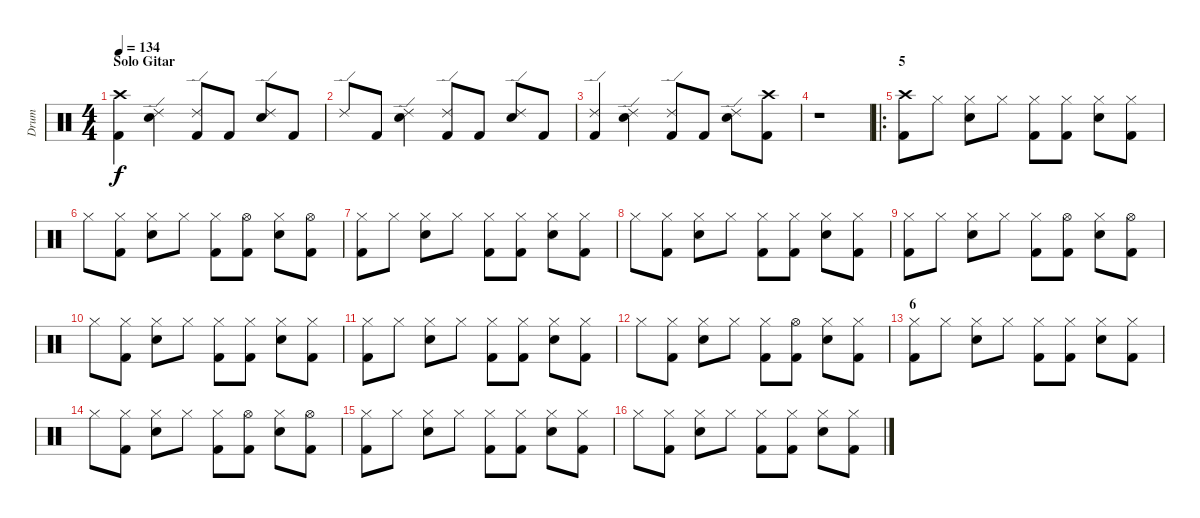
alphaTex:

\track ("Drum" "Drum") {instrument percussion}
\staff {score}
\articulation defaults
\ts (4 4)
\section ("" "Solo Gitar")
\tempo 134
\clef neutral
\ks c
("Kick (hit) 2" "Crash high (hit)").4{dy f} ("Electric Snare (hit)" "Ride (edge) 2").4 ("Ride (edge) 2" "Kick (hit) 2").8 "Kick (hit) 2".8 ("Electric Snare (hit)" "Ride (edge) 2").8 "Kick (hit) 2".8 |
"Ride (edge) 2".8 "Kick (hit) 2".8 ("Electric Snare (hit)" "Ride (edge) 2").4 ("Kick (hit) 2" "Ride (edge) 2").8 "Kick (hit) 2".8 ("Ride (edge) 2" "Electric Snare (hit)").8 "Kick (hit) 2".8 |
("Kick (hit) 2" "Ride (edge) 2").4 ("Electric Snare (hit)" "Ride (edge) 2").4 ("Ride (edge) 2" "Kick (hit) 2").8 "Kick (hit) 2".8 ("Electric Snare (hit)" "Ride (edge) 2").8 ("Crash high (hit)" "Kick (hit) 2").8 |
r.1 |
\ro
\section ("" "5")
("Kick (hit) 2" "Crash high (hit)").8 "Hi-Hat (closed)".8 ("Hi-Hat (closed)" "Electric Snare (hit)").8 "Hi-Hat (closed)".8 ("Hi-Hat (closed)" "Kick (hit) 2").8 ("Hi-Hat (closed)" "Kick (hit) 2").8 ("Electric Snare (hit)" "Hi-Hat (closed)").8 ("Hi-Hat (closed)" "Kick (hit) 2").8 |
"Hi-Hat (closed)".8 ("Hi-Hat (closed)" "Kick (hit) 2").8 ("Electric Snare (hit)" "Hi-Hat (closed)").8 "Hi-Hat (closed)".8 ("Kick (hit) 2" "Hi-Hat (closed)").8 ("Hi-Hat (open)" "Kick (hit) 2").8 ("Hi-Hat (closed)" "Electric Snare (hit)").8 ("Kick (hit) 2" "Hi-Hat (open)").8 |
("Kick (hit) 2" "Hi-Hat (closed)").8 "Hi-Hat (closed)".8 ("Hi-Hat (closed)" "Electric Snare (hit)").8 "Hi-Hat (closed)".8 ("Hi-Hat (closed)" "Kick (hit) 2").8 ("Hi-Hat (closed)" "Kick (hit) 2").8 ("Electric Snare (hit)" "Hi-Hat (closed)").8 ("Hi-Hat (closed)" "Kick (hit) 2").8 |
"Hi-Hat (closed)".8 ("Hi-Hat (closed)" "Kick (hit) 2").8 ("Electric Snare (hit)" "Hi-Hat (closed)").8 "Hi-Hat (closed)".8 ("Kick (hit) 2" "Hi-Hat (closed)").8 ("Hi-Hat (closed)" "Kick (hit) 2").8 ("Hi-Hat (closed)" "Electric Snare (hit)").8 ("Kick (hit) 2" "Hi-Hat (closed)").8 |
("Kick (hit) 2" "Hi-Hat (closed)").8 "Hi-Hat (closed)".8 ("Hi-Hat (closed)" "Electric Snare (hit)").8 "Hi-Hat (closed)".8 ("Hi-Hat (closed)" "Kick (hit) 2").8 ("Hi-Hat (open)" "Kick (hit) 2").8 ("Electric Snare (hit)" "Hi-Hat (closed)").8 ("Hi-Hat (open)" "Kick (hit) 2").8 |
"Hi-Hat (closed)".8 ("Hi-Hat (closed)" "Kick (hit) 2").8 ("Electric Snare (hit)" "Hi-Hat (closed)").8 "Hi-Hat (closed)".8 ("Kick (hit) 2" "Hi-Hat (closed)").8 ("Hi-Hat (closed)" "Kick (hit) 2").8 ("Hi-Hat (closed)" "Electric Snare (hit)").8 ("Kick (hit) 2" "Hi-Hat (closed)").8 |
("Kick (hit) 2" "Hi-Hat (closed)").8 "Hi-Hat (closed)".8 ("Hi-Hat (closed)" "Electric Snare (hit)").8 "Hi-Hat (closed)".8 ("Hi-Hat (closed)" "Kick (hit) 2").8 ("Hi-Hat (closed)" "Kick (hit) 2").8 ("Electric Snare (hit)" "Hi-Hat (closed)").8 ("Hi-Hat (closed)" "Kick (hit) 2").8 |
"Hi-Hat (closed)".8 ("Hi-Hat (closed)" "Kick (hit) 2").8 ("Electric Snare (hit)" "Hi-Hat (closed)").8 "Hi-Hat (closed)".8 ("Kick (hit) 2" "Hi-Hat (closed)").8 ("Hi-Hat (open)" "Kick (hit) 2").8 ("Hi-Hat (closed)" "Electric Snare (hit)").8 ("Kick (hit) 2" "Hi-Hat (closed)").8 |
\section ("" "6")
("Kick (hit) 2" "Hi-Hat (closed)").8 "Hi-Hat (closed)".8 ("Hi-Hat (closed)" "Electric Snare (hit)").8 "Hi-Hat (closed)".8 ("Hi-Hat (closed)" "Kick (hit) 2").8 ("Hi-Hat (closed)" "Kick (hit) 2").8 ("Electric Snare (hit)" "Hi-Hat (closed)").8 ("Hi-Hat (closed)" "Kick (hit) 2").8 |
"Hi-Hat (closed)".8 ("Hi-Hat (closed)" "Kick (hit) 2").8 ("Electric Snare (hit)" "Hi-Hat (closed)").8 "Hi-Hat (closed)".8 ("Kick (hit) 2" "Hi-Hat (closed)").8 ("Hi-Hat (open)" "Kick (hit) 2").8 ("Hi-Hat (closed)" "Electric Snare (hit)").8 ("Kick (hit) 2" "Hi-Hat (open)").8 |
("Kick (hit) 2" "Hi-Hat (closed)").8 "Hi-Hat (closed)".8 ("Hi-Hat (closed)" "Electric Snare (hit)").8 "Hi-Hat (closed)".8 ("Hi-Hat (closed)" "Kick (hit) 2").8 ("Hi-Hat (closed)" "Kick (hit) 2").8 ("Electric Snare (hit)" "Hi-Hat (closed)").8 ("Hi-Hat (closed)" "Kick (hit) 2").8 |
"Hi-Hat (closed)".8 ("Hi-Hat (closed)" "Kick (hit) 2").8 ("Electric Snare (hit)" "Hi-Hat (closed)").8 "Hi-Hat (closed)".8 ("Kick (hit) 2" "Hi-Hat (closed)").8 ("Hi-Hat (closed)" "Kick (hit) 2").8 ("Hi-Hat (closed)" "Electric Snare (hit)").8 ("Kick (hit) 2" "Hi-Hat (closed)").8
